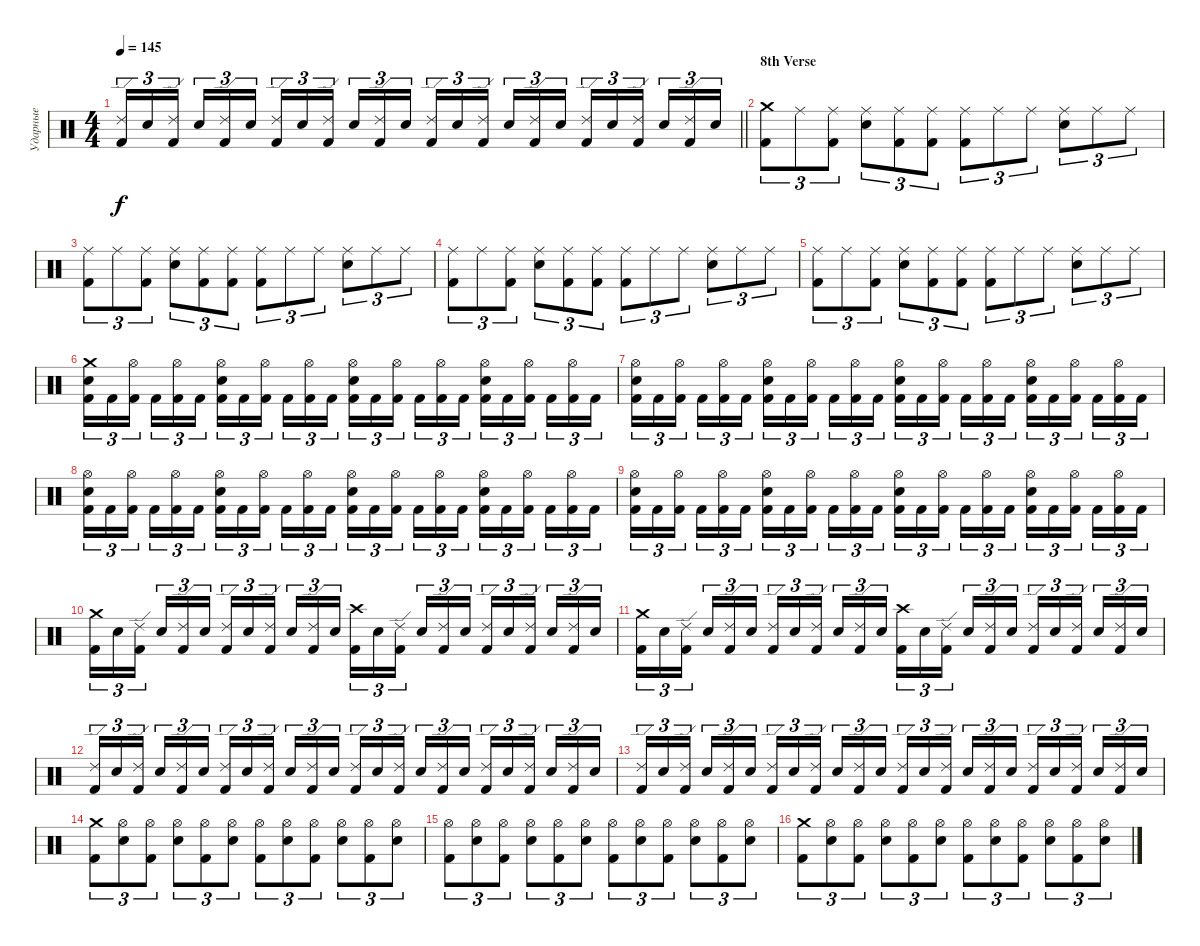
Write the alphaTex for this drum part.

\track ("Ударные" "Ударные") {instrument percussion}
\staff {score}
\articulation defaults
\ts (4 4)
\tempo 145
\clef neutral
\barLineRight lightlight
\ks c
("Kick (hit) 2" "Ride (edge) 2").16{tu (3 2) dy f} "Snare (hit) 2".16{tu (3 2)} ("Kick (hit) 2" "Ride (edge) 2").16{tu (3 2) beam splitsecondary} "Snare (hit) 2".16{tu (3 2)} ("Kick (hit) 2" "Ride (edge) 2").16{tu (3 2)} "Snare (hit) 2".16{tu (3 2)} ("Kick (hit) 2" "Ride (edge) 2").16{tu (3 2)} "Snare (hit) 2".16{tu (3 2)} ("Kick (hit) 2" "Ride (edge) 2").16{tu (3 2) beam splitsecondary} "Snare (hit) 2".16{tu (3 2)} ("Kick (hit) 2" "Ride (edge) 2").16{tu (3 2)} "Snare (hit) 2".16{tu (3 2)} ("Kick (hit) 2" "Ride (edge) 2").16{tu (3 2)} "Snare (hit) 2".16{tu (3 2)} ("Kick (hit) 2" "Ride (edge) 2").16{tu (3 2) beam splitsecondary} "Snare (hit) 2".16{tu (3 2)} ("Kick (hit) 2" "Ride (edge) 2").16{tu (3 2)} "Snare (hit) 2".16{tu (3 2)} ("Kick (hit) 2" "Ride (edge) 2").16{tu (3 2)} "Snare (hit) 2".16{tu (3 2)} ("Kick (hit) 2" "Ride (edge) 2").16{tu (3 2) beam splitsecondary} "Snare (hit) 2".16{tu (3 2)} ("Kick (hit) 2" "Ride (edge) 2").16{tu (3 2)} "Snare (hit) 2".16{tu (3 2)} |
\section ("" "8th Verse")
("Kick (hit) 2" "Crash medium (hit)").8{tu (3 2)} "Ride (middle)".8{tu (3 2)} ("Kick (hit) 2" "Ride (middle)").8{tu (3 2)} ("Electric Snare (hit)" "Ride (middle)").8{tu (3 2)} ("Kick (hit) 2" "Ride (middle)").8{tu (3 2)} ("Kick (hit) 2" "Ride (middle)").8{tu (3 2)} ("Kick (hit) 2" "Ride (middle)").8{tu (3 2)} "Ride (middle)".8{tu (3 2)} "Ride (middle)".8{tu (3 2)} ("Electric Snare (hit)" "Ride (middle)").8{tu (3 2)} "Ride (middle)".8{tu (3 2)} "Ride (middle)".8{tu (3 2)} |
("Kick (hit) 2" "Ride (middle)").8{tu (3 2)} "Ride (middle)".8{tu (3 2)} ("Kick (hit) 2" "Ride (middle)").8{tu (3 2)} ("Electric Snare (hit)" "Ride (middle)").8{tu (3 2)} ("Kick (hit) 2" "Ride (middle)").8{tu (3 2)} ("Kick (hit) 2" "Ride (middle)").8{tu (3 2)} ("Kick (hit) 2" "Ride (middle)").8{tu (3 2)} "Ride (middle)".8{tu (3 2)} "Ride (middle)".8{tu (3 2)} ("Electric Snare (hit)" "Ride (middle)").8{tu (3 2)} "Ride (middle)".8{tu (3 2)} "Ride (middle)".8{tu (3 2)} |
("Kick (hit) 2" "Ride (middle)").8{tu (3 2)} "Ride (middle)".8{tu (3 2)} ("Kick (hit) 2" "Ride (middle)").8{tu (3 2)} ("Electric Snare (hit)" "Ride (middle)").8{tu (3 2)} ("Kick (hit) 2" "Ride (middle)").8{tu (3 2)} ("Kick (hit) 2" "Ride (middle)").8{tu (3 2)} ("Kick (hit) 2" "Ride (middle)").8{tu (3 2)} "Ride (middle)".8{tu (3 2)} "Ride (middle)".8{tu (3 2)} ("Electric Snare (hit)" "Ride (middle)").8{tu (3 2)} "Ride (middle)".8{tu (3 2)} "Ride (middle)".8{tu (3 2)} |
("Kick (hit) 2" "Ride (middle)").8{tu (3 2)} "Ride (middle)".8{tu (3 2)} ("Kick (hit) 2" "Ride (middle)").8{tu (3 2)} ("Electric Snare (hit)" "Ride (middle)").8{tu (3 2)} ("Kick (hit) 2" "Ride (middle)").8{tu (3 2)} ("Kick (hit) 2" "Ride (middle)").8{tu (3 2)} ("Kick (hit) 2" "Ride (middle)").8{tu (3 2)} "Ride (middle)".8{tu (3 2)} "Ride (middle)".8{tu (3 2)} ("Electric Snare (hit)" "Ride (middle)").8{tu (3 2)} "Ride (middle)".8{tu (3 2)} "Ride (middle)".8{tu (3 2)} |
("Kick (hit) 2" "Electric Snare (hit)" "Crash medium (hit)").16{tu (3 2)} "Kick (hit) 2".16{tu (3 2)} ("Kick (hit) 2" "Hi-Hat (open)").16{tu (3 2) beam splitsecondary} "Kick (hit) 2".16{tu (3 2)} ("Kick (hit) 2" "Hi-Hat (open)").16{tu (3 2)} "Kick (hit) 2".16{tu (3 2)} ("Kick (hit) 2" "Electric Snare (hit)" "Hi-Hat (open)").16{tu (3 2)} "Kick (hit) 2".16{tu (3 2)} ("Kick (hit) 2" "Hi-Hat (open)").16{tu (3 2) beam splitsecondary} "Kick (hit) 2".16{tu (3 2)} ("Kick (hit) 2" "Hi-Hat (open)").16{tu (3 2)} "Kick (hit) 2".16{tu (3 2)} ("Kick (hit) 2" "Electric Snare (hit)" "Hi-Hat (open)").16{tu (3 2)} "Kick (hit) 2".16{tu (3 2)} ("Kick (hit) 2" "Hi-Hat (open)").16{tu (3 2) beam splitsecondary} "Kick (hit) 2".16{tu (3 2)} ("Kick (hit) 2" "Hi-Hat (open)").16{tu (3 2)} "Kick (hit) 2".16{tu (3 2)} ("Kick (hit) 2" "Electric Snare (hit)" "Hi-Hat (open)").16{tu (3 2)} "Kick (hit) 2".16{tu (3 2)} ("Kick (hit) 2" "Hi-Hat (open)").16{tu (3 2) beam splitsecondary} "Kick (hit) 2".16{tu (3 2)} ("Kick (hit) 2" "Hi-Hat (open)").16{tu (3 2)} "Kick (hit) 2".16{tu (3 2)} |
("Kick (hit) 2" "Electric Snare (hit)" "Hi-Hat (open)").16{tu (3 2)} "Kick (hit) 2".16{tu (3 2)} ("Kick (hit) 2" "Hi-Hat (open)").16{tu (3 2) beam splitsecondary} "Kick (hit) 2".16{tu (3 2)} ("Kick (hit) 2" "Hi-Hat (open)").16{tu (3 2)} "Kick (hit) 2".16{tu (3 2)} ("Kick (hit) 2" "Electric Snare (hit)" "Hi-Hat (open)").16{tu (3 2)} "Kick (hit) 2".16{tu (3 2)} ("Kick (hit) 2" "Hi-Hat (open)").16{tu (3 2) beam splitsecondary} "Kick (hit) 2".16{tu (3 2)} ("Kick (hit) 2" "Hi-Hat (open)").16{tu (3 2)} "Kick (hit) 2".16{tu (3 2)} ("Kick (hit) 2" "Electric Snare (hit)" "Hi-Hat (open)").16{tu (3 2)} "Kick (hit) 2".16{tu (3 2)} ("Kick (hit) 2" "Hi-Hat (open)").16{tu (3 2) beam splitsecondary} "Kick (hit) 2".16{tu (3 2)} ("Kick (hit) 2" "Hi-Hat (open)").16{tu (3 2)} "Kick (hit) 2".16{tu (3 2)} ("Kick (hit) 2" "Electric Snare (hit)" "Hi-Hat (open)").16{tu (3 2)} "Kick (hit) 2".16{tu (3 2)} ("Kick (hit) 2" "Hi-Hat (open)").16{tu (3 2) beam splitsecondary} "Kick (hit) 2".16{tu (3 2)} ("Kick (hit) 2" "Hi-Hat (open)").16{tu (3 2)} "Kick (hit) 2".16{tu (3 2)} |
("Kick (hit) 2" "Electric Snare (hit)" "Hi-Hat (open)").16{tu (3 2)} "Kick (hit) 2".16{tu (3 2)} ("Kick (hit) 2" "Hi-Hat (open)").16{tu (3 2) beam splitsecondary} "Kick (hit) 2".16{tu (3 2)} ("Kick (hit) 2" "Hi-Hat (open)").16{tu (3 2)} "Kick (hit) 2".16{tu (3 2)} ("Kick (hit) 2" "Electric Snare (hit)" "Hi-Hat (open)").16{tu (3 2)} "Kick (hit) 2".16{tu (3 2)} ("Kick (hit) 2" "Hi-Hat (open)").16{tu (3 2) beam splitsecondary} "Kick (hit) 2".16{tu (3 2)} ("Kick (hit) 2" "Hi-Hat (open)").16{tu (3 2)} "Kick (hit) 2".16{tu (3 2)} ("Kick (hit) 2" "Electric Snare (hit)" "Hi-Hat (open)").16{tu (3 2)} "Kick (hit) 2".16{tu (3 2)} ("Kick (hit) 2" "Hi-Hat (open)").16{tu (3 2) beam splitsecondary} "Kick (hit) 2".16{tu (3 2)} ("Kick (hit) 2" "Hi-Hat (open)").16{tu (3 2)} "Kick (hit) 2".16{tu (3 2)} ("Kick (hit) 2" "Electric Snare (hit)" "Hi-Hat (open)").16{tu (3 2)} "Kick (hit) 2".16{tu (3 2)} ("Kick (hit) 2" "Hi-Hat (open)").16{tu (3 2) beam splitsecondary} "Kick (hit) 2".16{tu (3 2)} ("Kick (hit) 2" "Hi-Hat (open)").16{tu (3 2)} "Kick (hit) 2".16{tu (3 2)} |
("Kick (hit) 2" "Electric Snare (hit)" "Hi-Hat (open)").16{tu (3 2)} "Kick (hit) 2".16{tu (3 2)} ("Kick (hit) 2" "Hi-Hat (open)").16{tu (3 2) beam splitsecondary} "Kick (hit) 2".16{tu (3 2)} ("Kick (hit) 2" "Hi-Hat (open)").16{tu (3 2)} "Kick (hit) 2".16{tu (3 2)} ("Kick (hit) 2" "Electric Snare (hit)" "Hi-Hat (open)").16{tu (3 2)} "Kick (hit) 2".16{tu (3 2)} ("Kick (hit) 2" "Hi-Hat (open)").16{tu (3 2) beam splitsecondary} "Kick (hit) 2".16{tu (3 2)} ("Kick (hit) 2" "Hi-Hat (open)").16{tu (3 2)} "Kick (hit) 2".16{tu (3 2)} ("Kick (hit) 2" "Electric Snare (hit)" "Hi-Hat (open)").16{tu (3 2)} "Kick (hit) 2".16{tu (3 2)} ("Kick (hit) 2" "Hi-Hat (open)").16{tu (3 2) beam splitsecondary} "Kick (hit) 2".16{tu (3 2)} ("Kick (hit) 2" "Hi-Hat (open)").16{tu (3 2)} "Kick (hit) 2".16{tu (3 2)} ("Kick (hit) 2" "Electric Snare (hit)" "Hi-Hat (open)").16{tu (3 2)} "Kick (hit) 2".16{tu (3 2)} ("Kick (hit) 2" "Hi-Hat (open)").16{tu (3 2) beam splitsecondary} "Kick (hit) 2".16{tu (3 2)} ("Kick (hit) 2" "Hi-Hat (open)").16{tu (3 2)} "Kick (hit) 2".16{tu (3 2)} |
("Kick (hit) 2" "Crash medium (hit)").16{tu (3 2)} "Snare (hit) 2".16{tu (3 2)} ("Kick (hit) 2" "Ride (edge) 2").16{tu (3 2) beam splitsecondary} "Snare (hit) 2".16{tu (3 2)} ("Kick (hit) 2" "Ride (edge) 2").16{tu (3 2)} "Snare (hit) 2".16{tu (3 2)} ("Kick (hit) 2" "Ride (edge) 2").16{tu (3 2)} "Snare (hit) 2".16{tu (3 2)} ("Kick (hit) 2" "Ride (edge) 2").16{tu (3 2) beam splitsecondary} "Snare (hit) 2".16{tu (3 2)} ("Kick (hit) 2" "Ride (edge) 2").16{tu (3 2)} "Snare (hit) 2".16{tu (3 2)} ("Kick (hit) 2" "Crash high (hit)").16{tu (3 2)} "Snare (hit) 2".16{tu (3 2)} ("Kick (hit) 2" "Ride (edge) 2").16{tu (3 2) beam splitsecondary} "Snare (hit) 2".16{tu (3 2)} ("Kick (hit) 2" "Ride (edge) 2").16{tu (3 2)} "Snare (hit) 2".16{tu (3 2)} ("Kick (hit) 2" "Ride (edge) 2").16{tu (3 2)} "Snare (hit) 2".16{tu (3 2)} ("Kick (hit) 2" "Ride (edge) 2").16{tu (3 2) beam splitsecondary} "Snare (hit) 2".16{tu (3 2)} ("Kick (hit) 2" "Ride (edge) 2").16{tu (3 2)} "Snare (hit) 2".16{tu (3 2)} |
("Kick (hit) 2" "Crash medium (hit)").16{tu (3 2)} "Snare (hit) 2".16{tu (3 2)} ("Kick (hit) 2" "Ride (edge) 2").16{tu (3 2) beam splitsecondary} "Snare (hit) 2".16{tu (3 2)} ("Kick (hit) 2" "Ride (edge) 2").16{tu (3 2)} "Snare (hit) 2".16{tu (3 2)} ("Kick (hit) 2" "Ride (edge) 2").16{tu (3 2)} "Snare (hit) 2".16{tu (3 2)} ("Kick (hit) 2" "Ride (edge) 2").16{tu (3 2) beam splitsecondary} "Snare (hit) 2".16{tu (3 2)} ("Kick (hit) 2" "Ride (edge) 2").16{tu (3 2)} "Snare (hit) 2".16{tu (3 2)} ("Kick (hit) 2" "Crash high (hit)").16{tu (3 2)} "Snare (hit) 2".16{tu (3 2)} ("Kick (hit) 2" "Ride (edge) 2").16{tu (3 2) beam splitsecondary} "Snare (hit) 2".16{tu (3 2)} ("Kick (hit) 2" "Ride (edge) 2").16{tu (3 2)} "Snare (hit) 2".16{tu (3 2)} ("Kick (hit) 2" "Ride (edge) 2").16{tu (3 2)} "Snare (hit) 2".16{tu (3 2)} ("Kick (hit) 2" "Ride (edge) 2").16{tu (3 2) beam splitsecondary} "Snare (hit) 2".16{tu (3 2)} ("Kick (hit) 2" "Ride (edge) 2").16{tu (3 2)} "Snare (hit) 2".16{tu (3 2)} |
("Kick (hit) 2" "Ride (edge) 2").16{tu (3 2)} "Snare (hit) 2".16{tu (3 2)} ("Kick (hit) 2" "Ride (edge) 2").16{tu (3 2) beam splitsecondary} "Snare (hit) 2".16{tu (3 2)} ("Kick (hit) 2" "Ride (edge) 2").16{tu (3 2)} "Snare (hit) 2".16{tu (3 2)} ("Kick (hit) 2" "Ride (edge) 2").16{tu (3 2)} "Snare (hit) 2".16{tu (3 2)} ("Kick (hit) 2" "Ride (edge) 2").16{tu (3 2) beam splitsecondary} "Snare (hit) 2".16{tu (3 2)} ("Kick (hit) 2" "Ride (edge) 2").16{tu (3 2)} "Snare (hit) 2".16{tu (3 2)} ("Kick (hit) 2" "Ride (edge) 2").16{tu (3 2)} "Snare (hit) 2".16{tu (3 2)} ("Kick (hit) 2" "Ride (edge) 2").16{tu (3 2) beam splitsecondary} "Snare (hit) 2".16{tu (3 2)} ("Kick (hit) 2" "Ride (edge) 2").16{tu (3 2)} "Snare (hit) 2".16{tu (3 2)} ("Kick (hit) 2" "Ride (edge) 2").16{tu (3 2)} "Snare (hit) 2".16{tu (3 2)} ("Kick (hit) 2" "Ride (edge) 2").16{tu (3 2) beam splitsecondary} "Snare (hit) 2".16{tu (3 2)} ("Kick (hit) 2" "Ride (edge) 2").16{tu (3 2)} "Snare (hit) 2".16{tu (3 2)} |
("Kick (hit) 2" "Ride (edge) 2").16{tu (3 2)} "Snare (hit) 2".16{tu (3 2)} ("Kick (hit) 2" "Ride (edge) 2").16{tu (3 2) beam splitsecondary} "Snare (hit) 2".16{tu (3 2)} ("Kick (hit) 2" "Ride (edge) 2").16{tu (3 2)} "Snare (hit) 2".16{tu (3 2)} ("Kick (hit) 2" "Ride (edge) 2").16{tu (3 2)} "Snare (hit) 2".16{tu (3 2)} ("Kick (hit) 2" "Ride (edge) 2").16{tu (3 2) beam splitsecondary} "Snare (hit) 2".16{tu (3 2)} ("Kick (hit) 2" "Ride (edge) 2").16{tu (3 2)} "Snare (hit) 2".16{tu (3 2)} ("Kick (hit) 2" "Ride (edge) 2").16{tu (3 2)} "Snare (hit) 2".16{tu (3 2)} ("Kick (hit) 2" "Ride (edge) 2").16{tu (3 2) beam splitsecondary} "Snare (hit) 2".16{tu (3 2)} ("Kick (hit) 2" "Ride (edge) 2").16{tu (3 2)} "Snare (hit) 2".16{tu (3 2)} ("Kick (hit) 2" "Ride (edge) 2").16{tu (3 2)} "Snare (hit) 2".16{tu (3 2)} ("Kick (hit) 2" "Ride (edge) 2").16{tu (3 2) beam splitsecondary} "Snare (hit) 2".16{tu (3 2)} ("Kick (hit) 2" "Ride (edge) 2").16{tu (3 2)} "Snare (hit) 2".16{tu (3 2)} |
("Kick (hit) 2" "Crash medium (hit)").8{tu (3 2)} ("Snare (hit) 2" "Hi-Hat (open)").8{tu (3 2)} ("Kick (hit) 2" "Hi-Hat (open)").8{tu (3 2)} ("Snare (hit) 2" "Hi-Hat (open)").8{tu (3 2)} ("Kick (hit) 2" "Hi-Hat (open)").8{tu (3 2)} ("Snare (hit) 2" "Hi-Hat (open)").8{tu (3 2)} ("Kick (hit) 2" "Hi-Hat (open)").8{tu (3 2)} ("Snare (hit) 2" "Hi-Hat (open)").8{tu (3 2)} ("Kick (hit) 2" "Hi-Hat (open)").8{tu (3 2)} ("Snare (hit) 2" "Hi-Hat (open)").8{tu (3 2)} ("Kick (hit) 2" "Hi-Hat (open)").8{tu (3 2)} ("Snare (hit) 2" "Hi-Hat (open)").8{tu (3 2)} |
("Kick (hit) 2" "Hi-Hat (open)").8{tu (3 2)} ("Snare (hit) 2" "Hi-Hat (open)").8{tu (3 2)} ("Kick (hit) 2" "Hi-Hat (open)").8{tu (3 2)} ("Snare (hit) 2" "Hi-Hat (open)").8{tu (3 2)} ("Kick (hit) 2" "Hi-Hat (open)").8{tu (3 2)} ("Snare (hit) 2" "Hi-Hat (open)").8{tu (3 2)} ("Kick (hit) 2" "Hi-Hat (open)").8{tu (3 2)} ("Snare (hit) 2" "Hi-Hat (open)").8{tu (3 2)} ("Kick (hit) 2" "Hi-Hat (open)").8{tu (3 2)} ("Snare (hit) 2" "Hi-Hat (open)").8{tu (3 2)} ("Kick (hit) 2" "Hi-Hat (open)").8{tu (3 2)} ("Snare (hit) 2" "Hi-Hat (open)").8{tu (3 2)} |
("Kick (hit) 2" "Crash medium (hit)").8{tu (3 2)} ("Snare (hit) 2" "Hi-Hat (open)").8{tu (3 2)} ("Kick (hit) 2" "Hi-Hat (open)").8{tu (3 2)} ("Snare (hit) 2" "Hi-Hat (open)").8{tu (3 2)} ("Kick (hit) 2" "Hi-Hat (open)").8{tu (3 2)} ("Snare (hit) 2" "Hi-Hat (open)").8{tu (3 2)} ("Kick (hit) 2" "Hi-Hat (open)").8{tu (3 2)} ("Snare (hit) 2" "Hi-Hat (open)").8{tu (3 2)} ("Kick (hit) 2" "Hi-Hat (open)").8{tu (3 2)} ("Snare (hit) 2" "Hi-Hat (open)").8{tu (3 2)} ("Kick (hit) 2" "Hi-Hat (open)").8{tu (3 2)} ("Snare (hit) 2" "Hi-Hat (open)").8{tu (3 2)}
